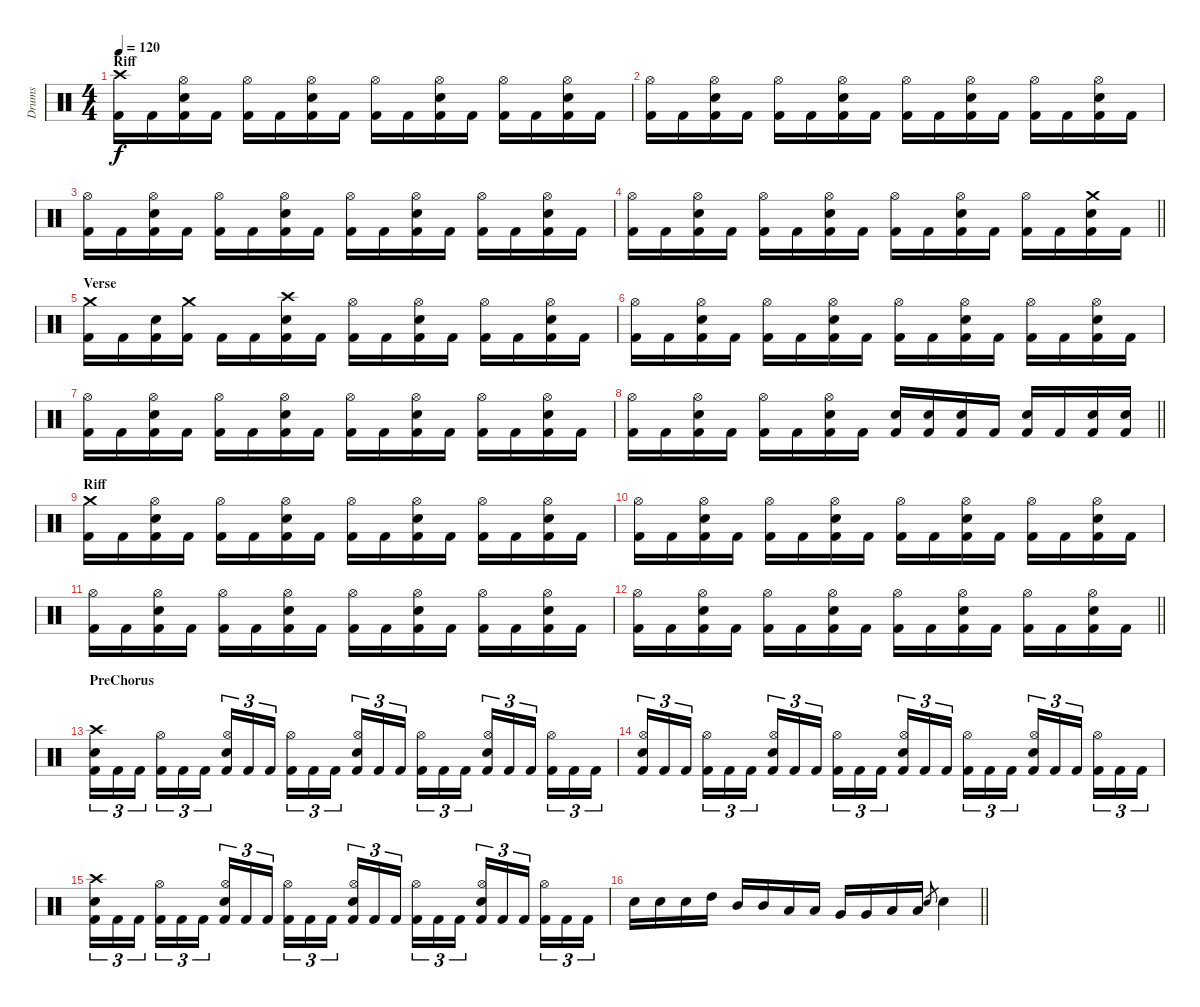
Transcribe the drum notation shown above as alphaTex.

\track ("Drums" "Drums") {instrument percussion}
\staff {score}
\articulation defaults
\ts (4 4)
\section ("" "Riff")
\tempo 120
\clef neutral
\ks c
("Crash high (hit)" "Kick (hit) 2").16{dy f} "Kick (hit) 2".16 ("Hi-Hat (open)" "Snare (hit) 2" "Kick (hit) 2").16 "Kick (hit) 2".16 ("Hi-Hat (open)" "Kick (hit) 2").16 "Kick (hit) 2".16 ("Hi-Hat (open)" "Snare (hit) 2" "Kick (hit) 2").16 "Kick (hit) 2".16 ("Hi-Hat (open)" "Kick (hit) 2").16 "Kick (hit) 2".16 ("Hi-Hat (open)" "Snare (hit) 2" "Kick (hit) 2").16 "Kick (hit) 2".16 ("Hi-Hat (open)" "Kick (hit) 2").16 "Kick (hit) 2".16 ("Hi-Hat (open)" "Snare (hit) 2" "Kick (hit) 2").16 "Kick (hit) 2".16 |
("Hi-Hat (open)" "Kick (hit) 2").16 "Kick (hit) 2".16 ("Hi-Hat (open)" "Snare (hit) 2" "Kick (hit) 2").16 "Kick (hit) 2".16 ("Hi-Hat (open)" "Kick (hit) 2").16 "Kick (hit) 2".16 ("Hi-Hat (open)" "Snare (hit) 2" "Kick (hit) 2").16 "Kick (hit) 2".16 ("Hi-Hat (open)" "Kick (hit) 2").16 "Kick (hit) 2".16 ("Hi-Hat (open)" "Snare (hit) 2" "Kick (hit) 2").16 "Kick (hit) 2".16 ("Hi-Hat (open)" "Kick (hit) 2").16 "Kick (hit) 2".16 ("Hi-Hat (open)" "Snare (hit) 2" "Kick (hit) 2").16 "Kick (hit) 2".16 |
("Hi-Hat (open)" "Kick (hit) 2").16 "Kick (hit) 2".16 ("Hi-Hat (open)" "Snare (hit) 2" "Kick (hit) 2").16 "Kick (hit) 2".16 ("Hi-Hat (open)" "Kick (hit) 2").16 "Kick (hit) 2".16 ("Hi-Hat (open)" "Snare (hit) 2" "Kick (hit) 2").16 "Kick (hit) 2".16 ("Hi-Hat (open)" "Kick (hit) 2").16 "Kick (hit) 2".16 ("Hi-Hat (open)" "Snare (hit) 2" "Kick (hit) 2").16 "Kick (hit) 2".16 ("Hi-Hat (open)" "Kick (hit) 2").16 "Kick (hit) 2".16 ("Hi-Hat (open)" "Snare (hit) 2" "Kick (hit) 2").16 "Kick (hit) 2".16 |
\barLineRight lightlight
("Hi-Hat (open)" "Kick (hit) 2").16 "Kick (hit) 2".16 ("Hi-Hat (open)" "Snare (hit) 2" "Kick (hit) 2").16 "Kick (hit) 2".16 ("Hi-Hat (open)" "Kick (hit) 2").16 "Kick (hit) 2".16 ("Hi-Hat (open)" "Snare (hit) 2" "Kick (hit) 2").16 "Kick (hit) 2".16 ("Hi-Hat (open)" "Kick (hit) 2").16 "Kick (hit) 2".16 ("Hi-Hat (open)" "Snare (hit) 2" "Kick (hit) 2").16 "Kick (hit) 2".16 ("Hi-Hat (open)" "Kick (hit) 2").16 "Kick (hit) 2".16 ("Crash medium (hit)" "Snare (hit) 2" "Kick (hit) 2").16 "Kick (hit) 2".16 |
\section ("" "Verse")
("Crash medium (hit)" "Kick (hit) 2").16 "Kick (hit) 2".16 ("Snare (hit) 2" "Kick (hit) 2").16 ("Crash medium (hit)" "Kick (hit) 2").16 "Kick (hit) 2".16 "Kick (hit) 2".16 ("Crash high (hit)" "Snare (hit) 2" "Kick (hit) 2").16 "Kick (hit) 2".16 ("Hi-Hat (open)" "Kick (hit) 2").16 "Kick (hit) 2".16 ("Hi-Hat (open)" "Snare (hit) 2" "Kick (hit) 2").16 "Kick (hit) 2".16 ("Hi-Hat (open)" "Kick (hit) 2").16 "Kick (hit) 2".16 ("Hi-Hat (open)" "Snare (hit) 2" "Kick (hit) 2").16 "Kick (hit) 2".16 |
("Hi-Hat (open)" "Kick (hit) 2").16 "Kick (hit) 2".16 ("Hi-Hat (open)" "Snare (hit) 2" "Kick (hit) 2").16 "Kick (hit) 2".16 ("Hi-Hat (open)" "Kick (hit) 2").16 "Kick (hit) 2".16 ("Hi-Hat (open)" "Snare (hit) 2" "Kick (hit) 2").16 "Kick (hit) 2".16 ("Hi-Hat (open)" "Kick (hit) 2").16 "Kick (hit) 2".16 ("Hi-Hat (open)" "Snare (hit) 2" "Kick (hit) 2").16 "Kick (hit) 2".16 ("Hi-Hat (open)" "Kick (hit) 2").16 "Kick (hit) 2".16 ("Hi-Hat (open)" "Snare (hit) 2" "Kick (hit) 2").16 "Kick (hit) 2".16 |
("Hi-Hat (open)" "Kick (hit) 2").16 "Kick (hit) 2".16 ("Hi-Hat (open)" "Snare (hit) 2" "Kick (hit) 2").16 "Kick (hit) 2".16 ("Hi-Hat (open)" "Kick (hit) 2").16 "Kick (hit) 2".16 ("Hi-Hat (open)" "Snare (hit) 2" "Kick (hit) 2").16 "Kick (hit) 2".16 ("Hi-Hat (open)" "Kick (hit) 2").16 "Kick (hit) 2".16 ("Hi-Hat (open)" "Snare (hit) 2" "Kick (hit) 2").16 "Kick (hit) 2".16 ("Hi-Hat (open)" "Kick (hit) 2").16 "Kick (hit) 2".16 ("Hi-Hat (open)" "Snare (hit) 2" "Kick (hit) 2").16 "Kick (hit) 2".16 |
\barLineRight lightlight
("Hi-Hat (open)" "Kick (hit) 2").16 "Kick (hit) 2".16 ("Hi-Hat (open)" "Snare (hit) 2" "Kick (hit) 2").16 "Kick (hit) 2".16 ("Hi-Hat (open)" "Kick (hit) 2").16 "Kick (hit) 2".16 ("Hi-Hat (open)" "Snare (hit) 2" "Kick (hit) 2").16 "Kick (hit) 2".16 ("Snare (hit) 2" "Kick (hit) 2").16 ("Snare (hit) 2" "Kick (hit) 2").16 ("Snare (hit) 2" "Kick (hit) 2").16 "Kick (hit) 2".16 ("Snare (hit) 2" "Kick (hit) 2").16 "Kick (hit) 2".16 ("Snare (hit) 2" "Kick (hit) 2").16 ("Snare (hit) 2" "Kick (hit) 2").16 |
\section ("" "Riff")
("Crash medium (hit)" "Kick (hit) 2").16 "Kick (hit) 2".16 ("Hi-Hat (open)" "Snare (hit) 2" "Kick (hit) 2").16 "Kick (hit) 2".16 ("Hi-Hat (open)" "Kick (hit) 2").16 "Kick (hit) 2".16 ("Hi-Hat (open)" "Snare (hit) 2" "Kick (hit) 2").16 "Kick (hit) 2".16 ("Hi-Hat (open)" "Kick (hit) 2").16 "Kick (hit) 2".16 ("Hi-Hat (open)" "Snare (hit) 2" "Kick (hit) 2").16 "Kick (hit) 2".16 ("Hi-Hat (open)" "Kick (hit) 2").16 "Kick (hit) 2".16 ("Hi-Hat (open)" "Snare (hit) 2" "Kick (hit) 2").16 "Kick (hit) 2".16 |
("Hi-Hat (open)" "Kick (hit) 2").16 "Kick (hit) 2".16 ("Hi-Hat (open)" "Snare (hit) 2" "Kick (hit) 2").16 "Kick (hit) 2".16 ("Hi-Hat (open)" "Kick (hit) 2").16 "Kick (hit) 2".16 ("Hi-Hat (open)" "Snare (hit) 2" "Kick (hit) 2").16 "Kick (hit) 2".16 ("Hi-Hat (open)" "Kick (hit) 2").16 "Kick (hit) 2".16 ("Hi-Hat (open)" "Snare (hit) 2" "Kick (hit) 2").16 "Kick (hit) 2".16 ("Hi-Hat (open)" "Kick (hit) 2").16 "Kick (hit) 2".16 ("Hi-Hat (open)" "Snare (hit) 2" "Kick (hit) 2").16 "Kick (hit) 2".16 |
("Hi-Hat (open)" "Kick (hit) 2").16 "Kick (hit) 2".16 ("Hi-Hat (open)" "Snare (hit) 2" "Kick (hit) 2").16 "Kick (hit) 2".16 ("Hi-Hat (open)" "Kick (hit) 2").16 "Kick (hit) 2".16 ("Hi-Hat (open)" "Snare (hit) 2" "Kick (hit) 2").16 "Kick (hit) 2".16 ("Hi-Hat (open)" "Kick (hit) 2").16 "Kick (hit) 2".16 ("Hi-Hat (open)" "Snare (hit) 2" "Kick (hit) 2").16 "Kick (hit) 2".16 ("Hi-Hat (open)" "Kick (hit) 2").16 "Kick (hit) 2".16 ("Hi-Hat (open)" "Snare (hit) 2" "Kick (hit) 2").16 "Kick (hit) 2".16 |
\barLineRight lightlight
("Hi-Hat (open)" "Kick (hit) 2").16 "Kick (hit) 2".16 ("Hi-Hat (open)" "Snare (hit) 2" "Kick (hit) 2").16 "Kick (hit) 2".16 ("Hi-Hat (open)" "Kick (hit) 2").16 "Kick (hit) 2".16 ("Hi-Hat (open)" "Snare (hit) 2" "Kick (hit) 2").16 "Kick (hit) 2".16 ("Hi-Hat (open)" "Kick (hit) 2").16 "Kick (hit) 2".16 ("Hi-Hat (open)" "Snare (hit) 2" "Kick (hit) 2").16 "Kick (hit) 2".16 ("Hi-Hat (open)" "Kick (hit) 2").16 "Kick (hit) 2".16 ("Hi-Hat (open)" "Snare (hit) 2" "Kick (hit) 2").16 "Kick (hit) 2".16 |
\section ("" "PreChorus")
("Crash high (hit)" "Snare (hit) 2" "Kick (hit) 2").16{tu (3 2)} "Kick (hit) 2".16{tu (3 2)} "Kick (hit) 2".16{tu (3 2)} ("Hi-Hat (open)" "Kick (hit) 2").16{tu (3 2)} "Kick (hit) 2".16{tu (3 2)} "Kick (hit) 2".16{tu (3 2)} ("Hi-Hat (open)" "Snare (hit) 2" "Kick (hit) 2").16{tu (3 2)} "Kick (hit) 2".16{tu (3 2)} "Kick (hit) 2".16{tu (3 2)} ("Hi-Hat (open)" "Kick (hit) 2").16{tu (3 2)} "Kick (hit) 2".16{tu (3 2)} "Kick (hit) 2".16{tu (3 2)} ("Hi-Hat (open)" "Snare (hit) 2" "Kick (hit) 2").16{tu (3 2)} "Kick (hit) 2".16{tu (3 2)} "Kick (hit) 2".16{tu (3 2)} ("Hi-Hat (open)" "Kick (hit) 2").16{tu (3 2)} "Kick (hit) 2".16{tu (3 2)} "Kick (hit) 2".16{tu (3 2)} ("Hi-Hat (open)" "Snare (hit) 2" "Kick (hit) 2").16{tu (3 2)} "Kick (hit) 2".16{tu (3 2)} "Kick (hit) 2".16{tu (3 2)} ("Hi-Hat (open)" "Kick (hit) 2").16{tu (3 2)} "Kick (hit) 2".16{tu (3 2)} "Kick (hit) 2".16{tu (3 2)} |
("Hi-Hat (open)" "Snare (hit) 2" "Kick (hit) 2").16{tu (3 2)} "Kick (hit) 2".16{tu (3 2)} "Kick (hit) 2".16{tu (3 2)} ("Hi-Hat (open)" "Kick (hit) 2").16{tu (3 2)} "Kick (hit) 2".16{tu (3 2)} "Kick (hit) 2".16{tu (3 2)} ("Hi-Hat (open)" "Snare (hit) 2" "Kick (hit) 2").16{tu (3 2)} "Kick (hit) 2".16{tu (3 2)} "Kick (hit) 2".16{tu (3 2)} ("Hi-Hat (open)" "Kick (hit) 2").16{tu (3 2)} "Kick (hit) 2".16{tu (3 2)} "Kick (hit) 2".16{tu (3 2)} ("Hi-Hat (open)" "Snare (hit) 2" "Kick (hit) 2").16{tu (3 2)} "Kick (hit) 2".16{tu (3 2)} "Kick (hit) 2".16{tu (3 2)} ("Hi-Hat (open)" "Kick (hit) 2").16{tu (3 2)} "Kick (hit) 2".16{tu (3 2)} "Kick (hit) 2".16{tu (3 2)} ("Hi-Hat (open)" "Snare (hit) 2" "Kick (hit) 2").16{tu (3 2)} "Kick (hit) 2".16{tu (3 2)} "Kick (hit) 2".16{tu (3 2)} ("Hi-Hat (open)" "Kick (hit) 2").16{tu (3 2)} "Kick (hit) 2".16{tu (3 2)} "Kick (hit) 2".16{tu (3 2)} |
("Crash high (hit)" "Snare (hit) 2" "Kick (hit) 2").16{tu (3 2)} "Kick (hit) 2".16{tu (3 2)} "Kick (hit) 2".16{tu (3 2)} ("Hi-Hat (open)" "Kick (hit) 2").16{tu (3 2)} "Kick (hit) 2".16{tu (3 2)} "Kick (hit) 2".16{tu (3 2)} ("Hi-Hat (open)" "Snare (hit) 2" "Kick (hit) 2").16{tu (3 2)} "Kick (hit) 2".16{tu (3 2)} "Kick (hit) 2".16{tu (3 2)} ("Hi-Hat (open)" "Kick (hit) 2").16{tu (3 2)} "Kick (hit) 2".16{tu (3 2)} "Kick (hit) 2".16{tu (3 2)} ("Hi-Hat (open)" "Snare (hit) 2" "Kick (hit) 2").16{tu (3 2)} "Kick (hit) 2".16{tu (3 2)} "Kick (hit) 2".16{tu (3 2)} ("Hi-Hat (open)" "Kick (hit) 2").16{tu (3 2)} "Kick (hit) 2".16{tu (3 2)} "Kick (hit) 2".16{tu (3 2)} ("Hi-Hat (open)" "Snare (hit) 2" "Kick (hit) 2").16{tu (3 2)} "Kick (hit) 2".16{tu (3 2)} "Kick (hit) 2".16{tu (3 2)} ("Hi-Hat (open)" "Kick (hit) 2").16{tu (3 2)} "Kick (hit) 2".16{tu (3 2)} "Kick (hit) 2".16{tu (3 2)} |
\barLineRight lightlight "Snare (hit) 2".16 "Snare (hit) 2".16 "Snare (hit) 2".16 "High Tom (hit)".16 "Mid Tom (hit)".16 "Mid Tom (hit)".16 "Low Tom (hit)".16 "Low Tom (hit)".16 "Very Low Tom (hit)".16 "Very Low Tom (hit)".16 "Low Floor Tom (hit)".16 "Low Floor Tom (hit)".16 "Snare (hit) 2".8{gr} "Snare (hit) 2".4
